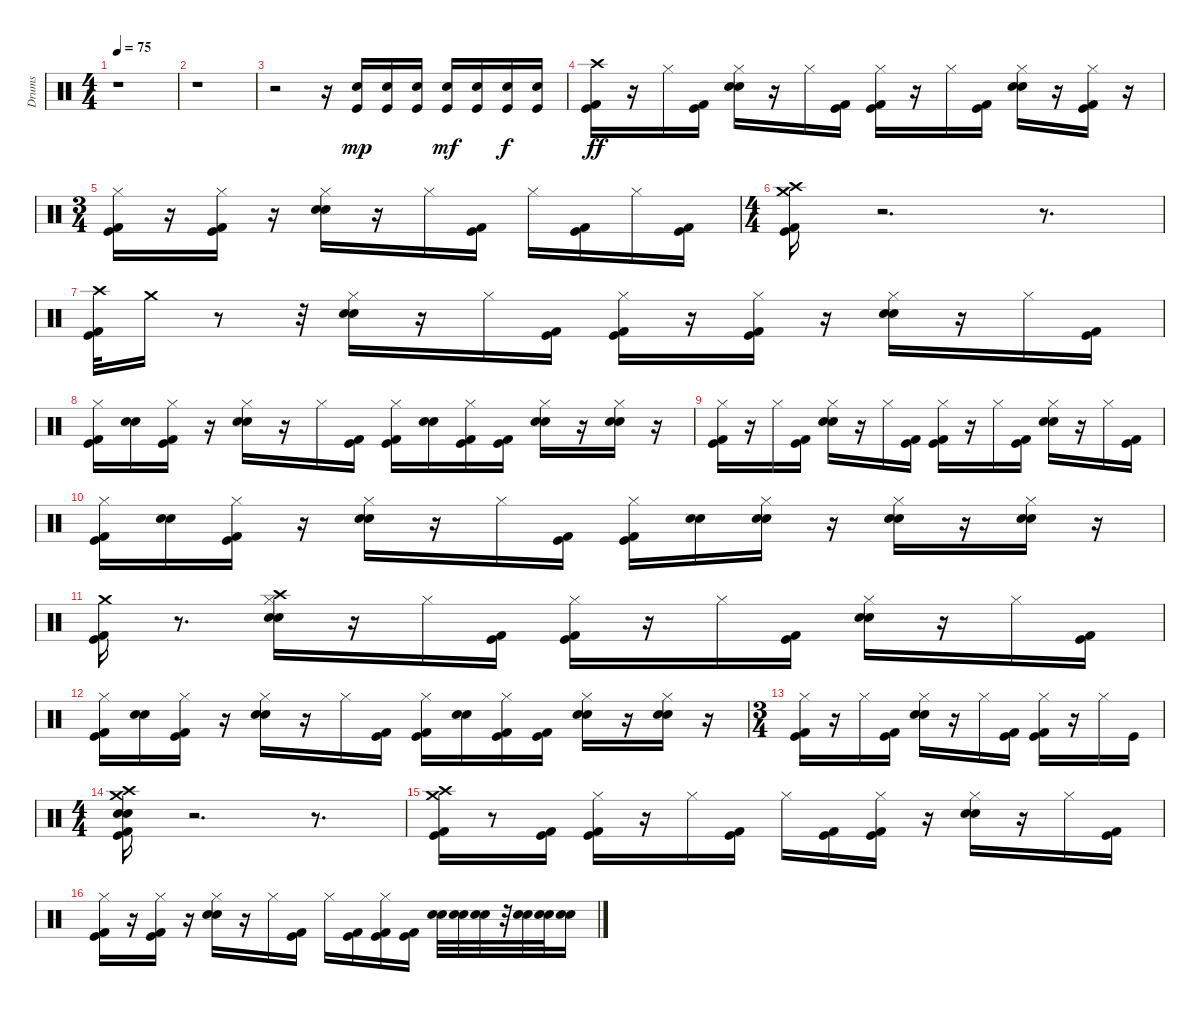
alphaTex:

\track ("Drums" "Drums") {instrument percussion}
\staff {score}
\articulation defaults
\ts (4 4)
\tempo 75
\clef neutral
\ks c
r.1{dy mp} |
r.1 |
r.2 r.16 ("Kick (hit)" "Snare (hit) 2").16 ("Kick (hit)" "Snare (hit) 2").16 ("Snare (hit) 2" "Kick (hit)").16 ("Kick (hit)" "Snare (hit) 2").16{dy mf} ("Kick (hit)" "Snare (hit) 2").16 ("Kick (hit)" "Snare (hit) 2").16{dy f} ("Snare (hit) 2" "Kick (hit)").16 |
("Kick (hit)" "Kick (hit) 2" "Crash high (hit)").16{dy ff} r.16 "Hi-Hat (closed)".16 ("Kick (hit) 2" "Kick (hit)").16 ("Electric Snare (hit)" "Hi-Hat (closed)" "Snare (hit) 2").16 r.16 "Hi-Hat (closed)".16 ("Kick (hit) 2" "Kick (hit)").16 ("Kick (hit)" "Hi-Hat (closed)" "Kick (hit) 2").16 r.16 "Hi-Hat (closed)".16 ("Kick (hit)" "Kick (hit) 2").16 ("Hi-Hat (closed)" "Snare (hit) 2" "Electric Snare (hit)").16 r.16 ("Kick (hit)" "Kick (hit) 2" "Hi-Hat (closed)").16 r.16 |
\ts (3 4)
("Kick (hit)" "Kick (hit) 2" "Hi-Hat (closed)").16 r.16 ("Hi-Hat (closed)" "Kick (hit) 2" "Kick (hit)").16 r.16 ("Snare (hit) 2" "Electric Snare (hit)" "Hi-Hat (closed)").16 r.16 "Hi-Hat (closed)".16 ("Kick (hit) 2" "Kick (hit)").16 "Hi-Hat (closed)".16 ("Kick (hit) 2" "Kick (hit)").16 "Hi-Hat (closed)".16 ("Kick (hit)" "Kick (hit) 2").16 |
\ts (4 4)
("Crash high (hit)" "Kick (hit) 2" "Kick (hit)" "Crash medium (hit)").16 r.2{d} r.8{d} |
("Kick (hit) 2" "Crash high (hit)" "Kick (hit)").32 "Crash medium (hit)".16 r.8 r.32 ("Hi-Hat (closed)" "Snare (hit) 2" "Electric Snare (hit)").16 r.16 "Hi-Hat (closed)".16 ("Kick (hit)" "Kick (hit) 2").16 ("Kick (hit)" "Hi-Hat (closed)" "Kick (hit) 2").16 r.16 ("Hi-Hat (closed)" "Kick (hit)" "Kick (hit) 2").16 r.16 ("Snare (hit) 2" "Electric Snare (hit)" "Hi-Hat (closed)").16 r.16 "Hi-Hat (closed)".16 ("Kick (hit)" "Kick (hit) 2").16 |
("Kick (hit) 2" "Hi-Hat (closed)" "Kick (hit)").16 ("Snare (hit) 2" "Electric Snare (hit)").16 ("Kick (hit) 2" "Hi-Hat (closed)" "Kick (hit)").16 r.16 ("Electric Snare (hit)" "Snare (hit) 2" "Hi-Hat (closed)").16 r.16 "Hi-Hat (closed)".16 ("Kick (hit)" "Kick (hit) 2").16 ("Kick (hit)" "Kick (hit) 2" "Hi-Hat (closed)").16 ("Snare (hit) 2" "Electric Snare (hit)").16 ("Kick (hit)" "Kick (hit) 2" "Hi-Hat (closed)").16 ("Kick (hit) 2" "Kick (hit)").16 ("Electric Snare (hit)" "Hi-Hat (closed)" "Snare (hit) 2").16 r.16 ("Electric Snare (hit)" "Hi-Hat (closed)" "Snare (hit) 2").16 r.16 |
("Kick (hit)" "Kick (hit) 2" "Hi-Hat (closed)").16 r.16 "Hi-Hat (closed)".16 ("Kick (hit) 2" "Kick (hit)").16 ("Hi-Hat (closed)" "Electric Snare (hit)" "Snare (hit) 2").16 r.16 "Hi-Hat (closed)".16 ("Kick (hit) 2" "Kick (hit)").16 ("Hi-Hat (closed)" "Kick (hit)" "Kick (hit) 2").16 r.16 "Hi-Hat (closed)".16 ("Kick (hit) 2" "Kick (hit)").16 ("Hi-Hat (closed)" "Snare (hit) 2" "Electric Snare (hit)").16 r.16 "Hi-Hat (closed)".16 ("Kick (hit) 2" "Kick (hit)").16 |
("Hi-Hat (closed)" "Kick (hit) 2" "Kick (hit)").16 ("Electric Snare (hit)" "Snare (hit) 2").16 ("Hi-Hat (closed)" "Kick (hit) 2" "Kick (hit)").16 r.16 ("Hi-Hat (closed)" "Electric Snare (hit)" "Snare (hit) 2").16 r.16 "Hi-Hat (closed)".16 ("Kick (hit) 2" "Kick (hit)").16 ("Kick (hit) 2" "Hi-Hat (closed)" "Kick (hit)").16 ("Electric Snare (hit)" "Snare (hit) 2").16 ("Electric Snare (hit)" "Hi-Hat (closed)" "Snare (hit) 2").16 r.16 ("Snare (hit) 2" "Electric Snare (hit)" "Hi-Hat (closed)").16 r.16 ("Snare (hit) 2" "Electric Snare (hit)" "Hi-Hat (closed)").16 r.16 |
("Kick (hit) 2" "Crash medium (hit)" "Kick (hit)").16 r.8{d} ("Crash high (hit)" "Electric Snare (hit)" "Snare (hit) 2" "Hi-Hat (closed)").16 r.16 "Hi-Hat (closed)".16 ("Kick (hit)" "Kick (hit) 2").16 ("Kick (hit) 2" "Kick (hit)" "Hi-Hat (closed)").16 r.16 "Hi-Hat (closed)".16 ("Kick (hit) 2" "Kick (hit)").16 ("Electric Snare (hit)" "Snare (hit) 2" "Hi-Hat (closed)").16 r.16 "Hi-Hat (closed)".16 ("Kick (hit)" "Kick (hit) 2").16 |
("Kick (hit)" "Hi-Hat (closed)" "Kick (hit) 2").16 ("Electric Snare (hit)" "Snare (hit) 2").16 ("Kick (hit)" "Kick (hit) 2" "Hi-Hat (closed)").16 r.16 ("Electric Snare (hit)" "Hi-Hat (closed)" "Snare (hit) 2").16 r.16 "Hi-Hat (closed)".16 ("Kick (hit) 2" "Kick (hit)").16 ("Kick (hit)" "Hi-Hat (closed)" "Kick (hit) 2").16 ("Snare (hit) 2" "Electric Snare (hit)").16 ("Kick (hit) 2" "Hi-Hat (closed)" "Kick (hit)").16 ("Kick (hit)" "Kick (hit) 2").16 ("Snare (hit) 2" "Electric Snare (hit)" "Hi-Hat (closed)").16 r.16 ("Hi-Hat (closed)" "Snare (hit) 2" "Electric Snare (hit)").16 r.16 |
\ts (3 4)
("Kick (hit)" "Kick (hit) 2" "Hi-Hat (closed)").16 r.16 "Hi-Hat (closed)".16 ("Kick (hit)" "Kick (hit) 2").16 ("Electric Snare (hit)" "Hi-Hat (closed)" "Snare (hit) 2").16 r.16 "Hi-Hat (closed)".16 ("Kick (hit) 2" "Kick (hit)").16 ("Kick (hit) 2" "Kick (hit)" "Hi-Hat (closed)").16 r.16 "Hi-Hat (closed)".16 "Kick (hit)".16 |
\ts (4 4)
("Kick (hit)" "Crash medium (hit)" "Electric Snare (hit)" "Crash high (hit)" "Kick (hit) 2" "Snare (hit) 2").16 r.2{d} r.8{d} |
("Kick (hit) 2" "Crash high (hit)" "Kick (hit)" "Crash medium (hit)").16 r.8 ("Kick (hit) 2" "Kick (hit)").16 ("Kick (hit) 2" "Hi-Hat (closed)" "Kick (hit)").16 r.16 "Hi-Hat (closed)".16 ("Kick (hit) 2" "Kick (hit)").16 "Hi-Hat (closed)".16 ("Kick (hit)" "Kick (hit) 2").16 ("Hi-Hat (closed)" "Kick (hit)" "Kick (hit) 2").16 r.16 ("Hi-Hat (closed)" "Snare (hit) 2" "Electric Snare (hit)").16 r.16 "Hi-Hat (closed)".16 ("Kick (hit)" "Kick (hit) 2").16 |
("Kick (hit) 2" "Kick (hit)" "Hi-Hat (closed)").16 r.16 ("Kick (hit) 2" "Kick (hit)" "Hi-Hat (closed)").16 r.16 ("Hi-Hat (closed)" "Snare (hit) 2" "Electric Snare (hit)").16 r.16 "Hi-Hat (closed)".16 ("Kick (hit) 2" "Kick (hit)").16 "Hi-Hat (closed)".16 ("Kick (hit)" "Kick (hit) 2").16 ("Hi-Hat (closed)" "Kick (hit) 2" "Kick (hit)").16 ("Kick (hit) 2" "Kick (hit)").16 ("Electric Snare (hit)" "Snare (hit) 2").32 ("Electric Snare (hit)" "Snare (hit) 2").32 ("Snare (hit) 2" "Electric Snare (hit)").32 r.32 ("Snare (hit) 2" "Electric Snare (hit)").32 ("Electric Snare (hit)" "Snare (hit) 2").32 ("Electric Snare (hit)" "Snare (hit) 2").16
